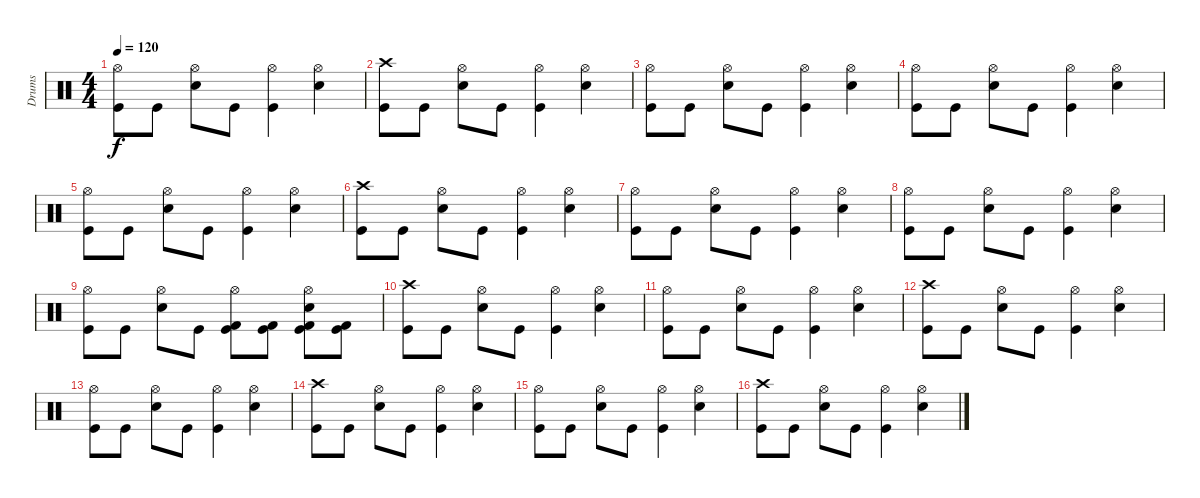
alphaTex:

\track ("Drums" "Drums") {instrument percussion}
\staff {score}
\articulation defaults
\ts (4 4)
\tempo 120
\clef neutral
\ks c
("Hi-Hat (open)" "Kick (hit)").8{dy f} "Kick (hit)".8 ("Hi-Hat (open)" "Electric Snare (hit)").8 "Kick (hit)".8 ("Hi-Hat (open)" "Kick (hit)").4 ("Hi-Hat (open)" "Electric Snare (hit)").4 |
("Crash high (hit)" "Kick (hit)").8 "Kick (hit)".8 ("Hi-Hat (open)" "Electric Snare (hit)").8 "Kick (hit)".8 ("Hi-Hat (open)" "Kick (hit)").4 ("Hi-Hat (open)" "Electric Snare (hit)").4 |
("Hi-Hat (open)" "Kick (hit)").8 "Kick (hit)".8 ("Hi-Hat (open)" "Electric Snare (hit)").8 "Kick (hit)".8 ("Hi-Hat (open)" "Kick (hit)").4 ("Hi-Hat (open)" "Electric Snare (hit)").4 |
("Hi-Hat (open)" "Kick (hit)").8 "Kick (hit)".8 ("Hi-Hat (open)" "Electric Snare (hit)").8 "Kick (hit)".8 ("Hi-Hat (open)" "Kick (hit)").4 ("Hi-Hat (open)" "Electric Snare (hit)").4 |
("Hi-Hat (open)" "Kick (hit)").8 "Kick (hit)".8 ("Hi-Hat (open)" "Electric Snare (hit)").8 "Kick (hit)".8 ("Hi-Hat (open)" "Kick (hit)").4 ("Hi-Hat (open)" "Electric Snare (hit)").4 |
("Crash high (hit)" "Kick (hit)").8 "Kick (hit)".8 ("Hi-Hat (open)" "Electric Snare (hit)").8 "Kick (hit)".8 ("Hi-Hat (open)" "Kick (hit)").4 ("Hi-Hat (open)" "Electric Snare (hit)").4 |
("Hi-Hat (open)" "Kick (hit)").8 "Kick (hit)".8 ("Hi-Hat (open)" "Electric Snare (hit)").8 "Kick (hit)".8 ("Hi-Hat (open)" "Kick (hit)").4 ("Hi-Hat (open)" "Electric Snare (hit)").4 |
("Hi-Hat (open)" "Kick (hit)").8 "Kick (hit)".8 ("Hi-Hat (open)" "Electric Snare (hit)").8 "Kick (hit)".8 ("Hi-Hat (open)" "Kick (hit)").4 ("Hi-Hat (open)" "Electric Snare (hit)").4 |
("Hi-Hat (open)" "Kick (hit)").8 "Kick (hit)".8 ("Hi-Hat (open)" "Electric Snare (hit)").8 "Kick (hit)".8 ("Hi-Hat (open)" "Kick (hit) 2" "Kick (hit)").8 ("Kick (hit) 2" "Kick (hit)").8 ("Hi-Hat (open)" "Electric Snare (hit)" "Kick (hit) 2" "Kick (hit)").8 ("Kick (hit) 2" "Kick (hit)").8 |
("Crash high (hit)" "Kick (hit)").8 "Kick (hit)".8 ("Hi-Hat (open)" "Electric Snare (hit)").8 "Kick (hit)".8 ("Hi-Hat (open)" "Kick (hit)").4 ("Hi-Hat (open)" "Electric Snare (hit)").4 |
("Hi-Hat (open)" "Kick (hit)").8 "Kick (hit)".8 ("Hi-Hat (open)" "Electric Snare (hit)").8 "Kick (hit)".8 ("Hi-Hat (open)" "Kick (hit)").4 ("Hi-Hat (open)" "Electric Snare (hit)").4 |
("Crash high (hit)" "Kick (hit)").8 "Kick (hit)".8 ("Hi-Hat (open)" "Electric Snare (hit)").8 "Kick (hit)".8 ("Hi-Hat (open)" "Kick (hit)").4 ("Hi-Hat (open)" "Electric Snare (hit)").4 |
("Hi-Hat (open)" "Kick (hit)").8 "Kick (hit)".8 ("Hi-Hat (open)" "Electric Snare (hit)").8 "Kick (hit)".8 ("Hi-Hat (open)" "Kick (hit)").4 ("Hi-Hat (open)" "Electric Snare (hit)").4 |
("Crash high (hit)" "Kick (hit)").8 "Kick (hit)".8 ("Hi-Hat (open)" "Electric Snare (hit)").8 "Kick (hit)".8 ("Hi-Hat (open)" "Kick (hit)").4 ("Hi-Hat (open)" "Electric Snare (hit)").4 |
("Hi-Hat (open)" "Kick (hit)").8 "Kick (hit)".8 ("Hi-Hat (open)" "Electric Snare (hit)").8 "Kick (hit)".8 ("Hi-Hat (open)" "Kick (hit)").4 ("Hi-Hat (open)" "Electric Snare (hit)").4 |
("Crash high (hit)" "Kick (hit)").8 "Kick (hit)".8 ("Hi-Hat (open)" "Electric Snare (hit)").8 "Kick (hit)".8 ("Hi-Hat (open)" "Kick (hit)").4 ("Hi-Hat (open)" "Electric Snare (hit)").4
